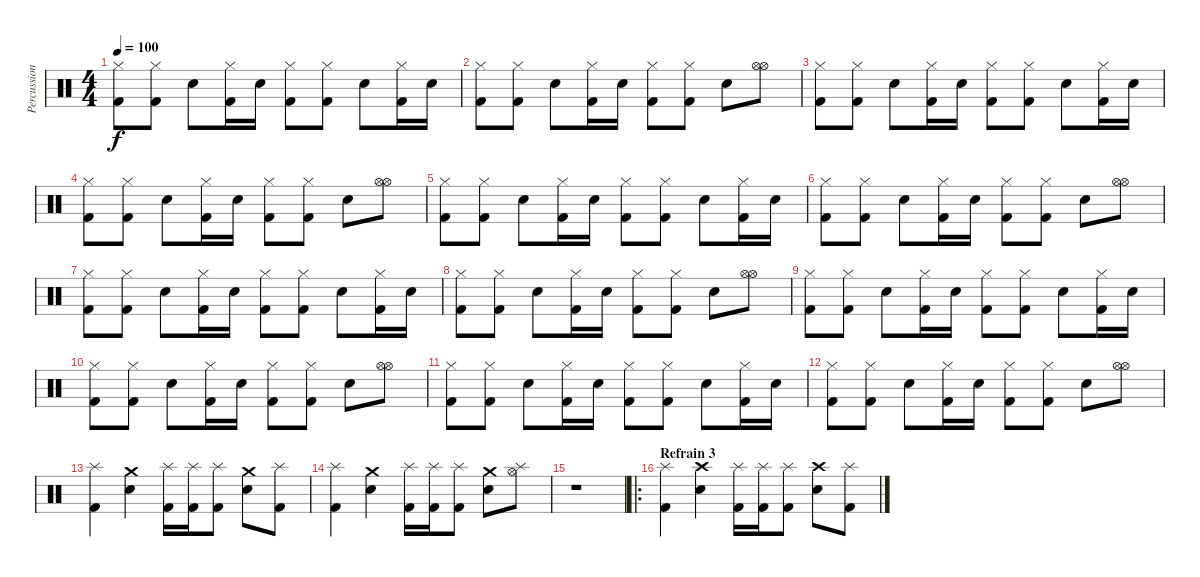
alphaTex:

\track ("Percussions" "Percussion") {instrument percussion}
\staff {score}
\articulation defaults
\ts (4 4)
\tempo 100
\clef neutral
\ks c
("Hi-Hat (closed)" "Kick (hit) 2").8{dy f} ("Hi-Hat (closed)" "Kick (hit) 2").8 "Snare (hit) 2".8 ("Hi-Hat (closed)" "Kick (hit) 2").16 "Snare (hit) 2".16 ("Hi-Hat (closed)" "Kick (hit) 2").8 ("Hi-Hat (closed)" "Kick (hit) 2").8 "Snare (hit) 2".8 ("Hi-Hat (closed)" "Kick (hit) 2").16 "Snare (hit) 2".16 |
("Hi-Hat (closed)" "Kick (hit) 2").8 ("Hi-Hat (closed)" "Kick (hit) 2").8 "Snare (hit) 2".8 ("Hi-Hat (closed)" "Kick (hit) 2").16 "Snare (hit) 2".16 ("Hi-Hat (closed)" "Kick (hit) 2").8 ("Hi-Hat (closed)" "Kick (hit) 2").8 "Snare (hit) 2".8 ("Hi-Hat (open)" "Hi-Hat (open)").8 |
("Hi-Hat (closed)" "Kick (hit) 2").8 ("Hi-Hat (closed)" "Kick (hit) 2").8 "Snare (hit) 2".8 ("Hi-Hat (closed)" "Kick (hit) 2").16 "Snare (hit) 2".16 ("Hi-Hat (closed)" "Kick (hit) 2").8 ("Hi-Hat (closed)" "Kick (hit) 2").8 "Snare (hit) 2".8 ("Hi-Hat (closed)" "Kick (hit) 2").16 "Snare (hit) 2".16 |
("Hi-Hat (closed)" "Kick (hit) 2").8 ("Hi-Hat (closed)" "Kick (hit) 2").8 "Snare (hit) 2".8 ("Hi-Hat (closed)" "Kick (hit) 2").16 "Snare (hit) 2".16 ("Hi-Hat (closed)" "Kick (hit) 2").8 ("Hi-Hat (closed)" "Kick (hit) 2").8 "Snare (hit) 2".8 ("Hi-Hat (open)" "Hi-Hat (open)").8 |
("Hi-Hat (closed)" "Kick (hit) 2").8 ("Hi-Hat (closed)" "Kick (hit) 2").8 "Snare (hit) 2".8 ("Hi-Hat (closed)" "Kick (hit) 2").16 "Snare (hit) 2".16 ("Hi-Hat (closed)" "Kick (hit) 2").8 ("Hi-Hat (closed)" "Kick (hit) 2").8 "Snare (hit) 2".8 ("Hi-Hat (closed)" "Kick (hit) 2").16 "Snare (hit) 2".16 |
("Hi-Hat (closed)" "Kick (hit) 2").8 ("Hi-Hat (closed)" "Kick (hit) 2").8 "Snare (hit) 2".8 ("Hi-Hat (closed)" "Kick (hit) 2").16 "Snare (hit) 2".16 ("Hi-Hat (closed)" "Kick (hit) 2").8 ("Hi-Hat (closed)" "Kick (hit) 2").8 "Snare (hit) 2".8 ("Hi-Hat (open)" "Hi-Hat (open)").8 |
("Hi-Hat (closed)" "Kick (hit) 2").8 ("Hi-Hat (closed)" "Kick (hit) 2").8 "Snare (hit) 2".8 ("Hi-Hat (closed)" "Kick (hit) 2").16 "Snare (hit) 2".16 ("Hi-Hat (closed)" "Kick (hit) 2").8 ("Hi-Hat (closed)" "Kick (hit) 2").8 "Snare (hit) 2".8 ("Hi-Hat (closed)" "Kick (hit) 2").16 "Snare (hit) 2".16 |
("Hi-Hat (closed)" "Kick (hit) 2").8 ("Hi-Hat (closed)" "Kick (hit) 2").8 "Snare (hit) 2".8 ("Hi-Hat (closed)" "Kick (hit) 2").16 "Snare (hit) 2".16 ("Hi-Hat (closed)" "Kick (hit) 2").8 ("Hi-Hat (closed)" "Kick (hit) 2").8 "Snare (hit) 2".8 ("Hi-Hat (open)" "Hi-Hat (open)").8 |
("Hi-Hat (closed)" "Kick (hit) 2").8 ("Hi-Hat (closed)" "Kick (hit) 2").8 "Snare (hit) 2".8 ("Hi-Hat (closed)" "Kick (hit) 2").16 "Snare (hit) 2".16 ("Hi-Hat (closed)" "Kick (hit) 2").8 ("Hi-Hat (closed)" "Kick (hit) 2").8 "Snare (hit) 2".8 ("Hi-Hat (closed)" "Kick (hit) 2").16 "Snare (hit) 2".16 |
("Hi-Hat (closed)" "Kick (hit) 2").8 ("Hi-Hat (closed)" "Kick (hit) 2").8 "Snare (hit) 2".8 ("Hi-Hat (closed)" "Kick (hit) 2").16 "Snare (hit) 2".16 ("Hi-Hat (closed)" "Kick (hit) 2").8 ("Hi-Hat (closed)" "Kick (hit) 2").8 "Snare (hit) 2".8 ("Hi-Hat (open)" "Hi-Hat (open)").8 |
("Hi-Hat (closed)" "Kick (hit) 2").8 ("Hi-Hat (closed)" "Kick (hit) 2").8 "Snare (hit) 2".8 ("Hi-Hat (closed)" "Kick (hit) 2").16 "Snare (hit) 2".16 ("Hi-Hat (closed)" "Kick (hit) 2").8 ("Hi-Hat (closed)" "Kick (hit) 2").8 "Snare (hit) 2".8 ("Hi-Hat (closed)" "Kick (hit) 2").16 "Snare (hit) 2".16 |
("Hi-Hat (closed)" "Kick (hit) 2").8 ("Hi-Hat (closed)" "Kick (hit) 2").8 "Snare (hit) 2".8 ("Hi-Hat (closed)" "Kick (hit) 2").16 "Snare (hit) 2".16 ("Hi-Hat (closed)" "Kick (hit) 2").8 ("Hi-Hat (closed)" "Kick (hit) 2").8 "Snare (hit) 2".8 ("Hi-Hat (open)" "Hi-Hat (open)").8 |
("Splash (hit)" "Kick (hit) 2").4 ("Crash medium (hit)" "Snare (hit) 2").4 ("Splash (hit)" "Kick (hit) 2").16 ("Splash (hit)" "Kick (hit) 2").16 ("Splash (hit)" "Kick (hit) 2").8 ("Crash medium (hit)" "Snare (hit) 2").8 ("Splash (hit)" "Kick (hit) 2").8 |
("Splash (hit)" "Kick (hit) 2").4 ("Crash medium (hit)" "Snare (hit) 2").4 ("Splash (hit)" "Kick (hit) 2").16 ("Splash (hit)" "Kick (hit) 2").16 ("Splash (hit)" "Kick (hit) 2").8 ("Crash medium (hit)" "Snare (hit) 2").8 ("Splash (hit)" "Hi-Hat (open)").8 |
r.1 |
\ro
\section ("" "Refrain 3")
("Splash (hit)" "Kick (hit) 2").4 ("Snare (hit) 2" "Crash high (hit)").4 ("Splash (hit)" "Kick (hit) 2").16 ("Splash (hit)" "Kick (hit) 2").16 ("Splash (hit)" "Kick (hit) 2").8 ("Snare (hit) 2" "Crash high (hit)").8 ("Splash (hit)" "Kick (hit) 2").8
